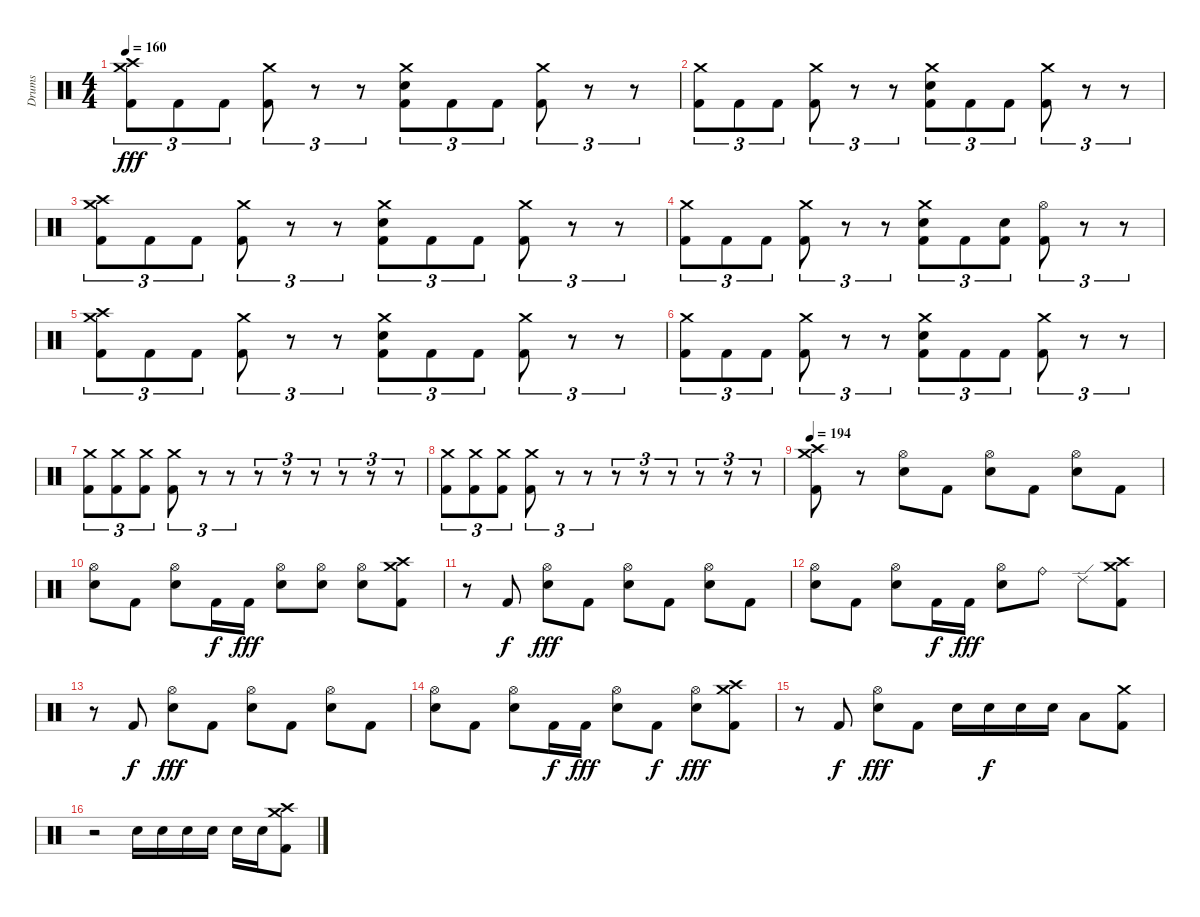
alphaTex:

\track ("Drums" "Drums") {instrument percussion}
\staff {score}
\articulation defaults
\ts (4 4)
\tempo 160
\clef neutral
\ks c
("Crash medium (hit)" "Crash high (hit)" "Kick (hit) 2").8{tu (3 2) dy fff} "Kick (hit) 2".8{tu (3 2)} "Kick (hit) 2".8{tu (3 2)} ("Crash medium (hit)" "Kick (hit) 2").8{tu (3 2)} r.8{tu (3 2)} r.8{tu (3 2)} ("Crash medium (hit)" "Electric Snare (hit)" "Kick (hit) 2").8{tu (3 2)} "Kick (hit) 2".8{tu (3 2)} "Kick (hit) 2".8{tu (3 2)} ("Crash medium (hit)" "Kick (hit) 2").8{tu (3 2)} r.8{tu (3 2)} r.8{tu (3 2)} |
("Crash medium (hit)" "Kick (hit) 2").8{tu (3 2)} "Kick (hit) 2".8{tu (3 2)} "Kick (hit) 2".8{tu (3 2)} ("Crash medium (hit)" "Kick (hit) 2").8{tu (3 2)} r.8{tu (3 2)} r.8{tu (3 2)} ("Crash medium (hit)" "Electric Snare (hit)" "Kick (hit) 2").8{tu (3 2)} "Kick (hit) 2".8{tu (3 2)} "Kick (hit) 2".8{tu (3 2)} ("Crash medium (hit)" "Kick (hit) 2").8{tu (3 2)} r.8{tu (3 2)} r.8{tu (3 2)} |
("Crash medium (hit)" "Crash high (hit)" "Kick (hit) 2").8{tu (3 2)} "Kick (hit) 2".8{tu (3 2)} "Kick (hit) 2".8{tu (3 2)} ("Crash medium (hit)" "Kick (hit) 2").8{tu (3 2)} r.8{tu (3 2)} r.8{tu (3 2)} ("Crash medium (hit)" "Electric Snare (hit)" "Kick (hit) 2").8{tu (3 2)} "Kick (hit) 2".8{tu (3 2)} "Kick (hit) 2".8{tu (3 2)} ("Crash medium (hit)" "Kick (hit) 2").8{tu (3 2)} r.8{tu (3 2)} r.8{tu (3 2)} |
("Crash medium (hit)" "Kick (hit) 2").8{tu (3 2)} "Kick (hit) 2".8{tu (3 2)} "Kick (hit) 2".8{tu (3 2)} ("Crash medium (hit)" "Kick (hit) 2").8{tu (3 2)} r.8{tu (3 2)} r.8{tu (3 2)} ("Crash medium (hit)" "Electric Snare (hit)" "Kick (hit) 2").8{tu (3 2)} "Kick (hit) 2".8{tu (3 2)} ("Electric Snare (hit)" "Kick (hit) 2").8{tu (3 2)} ("Hi-Hat (open)" "Kick (hit) 2").8{tu (3 2)} r.8{tu (3 2)} r.8{tu (3 2)} |
("Crash medium (hit)" "Crash high (hit)" "Kick (hit) 2").8{tu (3 2)} "Kick (hit) 2".8{tu (3 2)} "Kick (hit) 2".8{tu (3 2)} ("Crash medium (hit)" "Kick (hit) 2").8{tu (3 2)} r.8{tu (3 2)} r.8{tu (3 2)} ("Crash medium (hit)" "Electric Snare (hit)" "Kick (hit) 2").8{tu (3 2)} "Kick (hit) 2".8{tu (3 2)} "Kick (hit) 2".8{tu (3 2)} ("Crash medium (hit)" "Kick (hit) 2").8{tu (3 2)} r.8{tu (3 2)} r.8{tu (3 2)} |
("Crash medium (hit)" "Kick (hit) 2").8{tu (3 2)} "Kick (hit) 2".8{tu (3 2)} "Kick (hit) 2".8{tu (3 2)} ("Crash medium (hit)" "Kick (hit) 2").8{tu (3 2)} r.8{tu (3 2)} r.8{tu (3 2)} ("Crash medium (hit)" "Electric Snare (hit)" "Kick (hit) 2").8{tu (3 2)} "Kick (hit) 2".8{tu (3 2)} "Kick (hit) 2".8{tu (3 2)} ("Crash medium (hit)" "Kick (hit) 2").8{tu (3 2)} r.8{tu (3 2)} r.8{tu (3 2)} |
("Crash medium (hit)" "Kick (hit) 2").8{tu (3 2)} ("Crash medium (hit)" "Kick (hit) 2").8{tu (3 2)} ("Crash medium (hit)" "Kick (hit) 2").8{tu (3 2)} ("Crash medium (hit)" "Kick (hit) 2").8{tu (3 2)} r.8{tu (3 2) volume 0} r.8{tu (3 2)} r.8{tu (3 2)} r.8{tu (3 2)} r.8{tu (3 2)} r.8{tu (3 2)} r.8{tu (3 2)} r.8{tu (3 2)} |
("Crash medium (hit)" "Kick (hit) 2").8{tu (3 2) volume 13} ("Crash medium (hit)" "Kick (hit) 2").8{tu (3 2)} ("Crash medium (hit)" "Kick (hit) 2").8{tu (3 2)} ("Crash medium (hit)" "Kick (hit) 2").8{tu (3 2)} r.8{tu (3 2)} r.8{tu (3 2)} r.8{tu (3 2)} r.8{tu (3 2)} r.8{tu (3 2)} r.8{tu (3 2)} r.8{tu (3 2)} r.8{tu (3 2)} |
\tempo 194
("Crash medium (hit)" "Crash high (hit)" "Kick (hit) 2").8 r.8 ("Hi-Hat (open)" "Electric Snare (hit)").8 "Kick (hit) 2".8 ("Hi-Hat (open)" "Electric Snare (hit)").8 "Kick (hit) 2".8 ("Hi-Hat (open)" "Electric Snare (hit)").8 "Kick (hit) 2".8 |
("Hi-Hat (open)" "Electric Snare (hit)").8 "Kick (hit) 2".8 ("Hi-Hat (open)" "Electric Snare (hit)").8 "Kick (hit) 2".16{dy f} "Kick (hit) 2".16{dy fff} ("Hi-Hat (open)" "Electric Snare (hit)").8 ("Hi-Hat (open)" "Electric Snare (hit)").8 ("Hi-Hat (open)" "Electric Snare (hit)").8 ("Crash medium (hit)" "Crash high (hit)" "Kick (hit) 2").8 |
r.8 "Kick (hit) 2".8{dy f} ("Hi-Hat (open)" "Electric Snare (hit)").8{dy fff} "Kick (hit) 2".8 ("Hi-Hat (open)" "Electric Snare (hit)").8 "Kick (hit) 2".8 ("Hi-Hat (open)" "Electric Snare (hit)").8 "Kick (hit) 2".8 |
("Hi-Hat (open)" "Electric Snare (hit)").8 "Kick (hit) 2".8 ("Hi-Hat (open)" "Electric Snare (hit)").8 "Kick (hit) 2".16{dy f} "Kick (hit) 2".16{dy fff} ("Hi-Hat (open)" "Electric Snare (hit)").8 "Ride (bell)".8 "Ride (edge) 2".8 ("Crash medium (hit)" "Crash high (hit)" "Kick (hit) 2").8 |
r.8 "Kick (hit) 2".8{dy f} ("Hi-Hat (open)" "Electric Snare (hit)").8{dy fff} "Kick (hit) 2".8 ("Hi-Hat (open)" "Electric Snare (hit)").8 "Kick (hit) 2".8 ("Hi-Hat (open)" "Electric Snare (hit)").8 "Kick (hit) 2".8 |
("Hi-Hat (open)" "Electric Snare (hit)").8 "Kick (hit) 2".8 ("Hi-Hat (open)" "Electric Snare (hit)").8 "Kick (hit) 2".16{dy f} "Kick (hit) 2".16{dy fff} ("Hi-Hat (open)" "Electric Snare (hit)").8 "Kick (hit) 2".8{dy f} ("Hi-Hat (open)" "Electric Snare (hit)").8{dy fff} ("Crash medium (hit)" "Crash high (hit)" "Kick (hit) 2").8 |
r.8 "Kick (hit) 2".8{dy f} ("Hi-Hat (open)" "Electric Snare (hit)").8{dy fff} "Kick (hit) 2".8 "Electric Snare (hit)".16 "Electric Snare (hit)".16{dy f} "Electric Snare (hit)".16 "Electric Snare (hit)".16 "Low Tom (hit)".8 ("Crash medium (hit)" "Kick (hit) 2").8 |
r.2 "Electric Snare (hit)".16 "Electric Snare (hit)".16 "Electric Snare (hit)".16 "Electric Snare (hit)".16 "Electric Snare (hit)".16 "Electric Snare (hit)".16 ("Crash medium (hit)" "Crash high (hit)" "Kick (hit) 2").8
